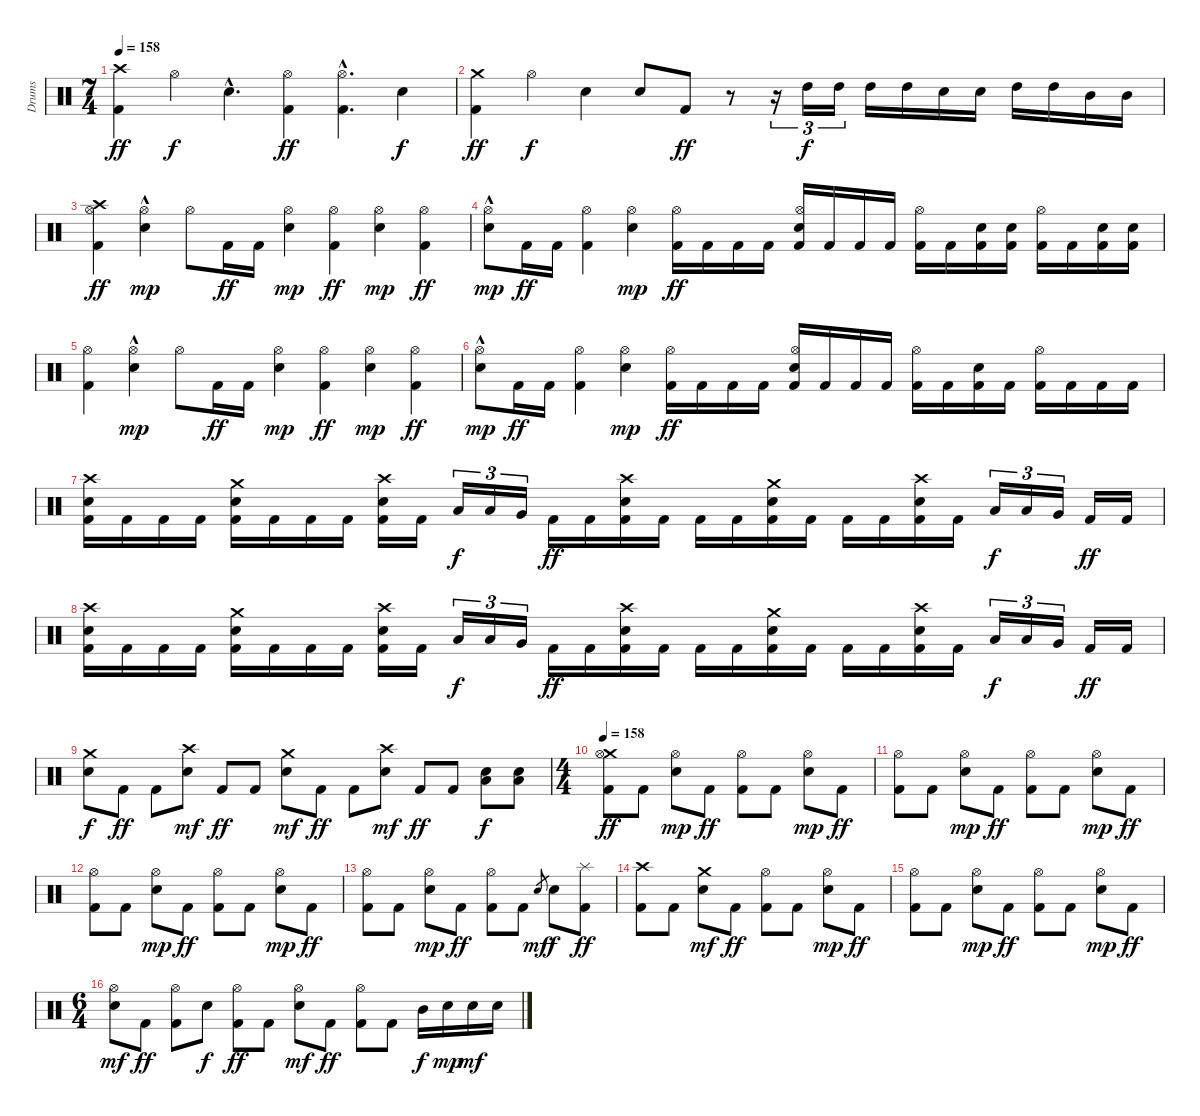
\track ("Drums" "Drums") {instrument percussion}
\staff {score}
\articulation defaults
\ts (7 4)
\tempo 158
\clef neutral
\ks c
("Crash high (hit)" "Kick (hit) 2").4{dy ff} "Hi-Hat (open)".4{dy f} "Electric Snare (hit)"{hac}.4{d} ("Hi-Hat (open)" "Kick (hit) 2").4{dy ff} ("Hi-Hat (open)"{hac} "Kick (hit) 2"{hac}).4{d} "Electric Snare (hit)".4{dy f} |
("Crash medium (hit)" "Kick (hit) 2").4{dy ff} "Hi-Hat (open)".4{dy f} "Electric Snare (hit)".4 "Electric Snare (hit)".8 "Kick (hit) 2".8{dy ff} r.8 r.16{tu (3 2)} "High Tom (hit)".16{tu (3 2) dy f} "High Tom (hit)".16{tu (3 2)} "High Tom (hit)".16 "High Tom (hit)".16 "Electric Snare (hit)".16 "Electric Snare (hit)".16 "High Tom (hit)".16 "High Tom (hit)".16 "Mid Tom (hit)".16 "Mid Tom (hit)".16 |
("Crash high (hit)" "Hi-Hat (open)" "Kick (hit) 2").4{dy ff} ("Hi-Hat (open)" "Electric Snare (hit)"{hac}).4{dy mp} "Hi-Hat (open)".8 "Kick (hit) 2".16{dy ff} "Kick (hit) 2".16 ("Hi-Hat (open)" "Electric Snare (hit)").4{dy mp} ("Hi-Hat (open)" "Kick (hit) 2").4{dy ff} ("Hi-Hat (open)" "Electric Snare (hit)").4{dy mp} ("Hi-Hat (open)" "Kick (hit) 2").4{dy ff} |
("Hi-Hat (open)" "Electric Snare (hit)"{hac}).8{dy mp} "Kick (hit) 2".16{dy ff} "Kick (hit) 2".16 ("Hi-Hat (open)" "Kick (hit) 2").4 ("Hi-Hat (open)" "Electric Snare (hit)").4{dy mp} ("Hi-Hat (open)" "Kick (hit) 2").16{dy ff} "Kick (hit) 2".16 "Kick (hit) 2".16 "Kick (hit) 2".16 ("Hi-Hat (open)" "Electric Snare (hit)" "Kick (hit) 2").16 "Kick (hit) 2".16 "Kick (hit) 2".16 "Kick (hit) 2".16 ("Hi-Hat (open)" "Kick (hit) 2").16 "Kick (hit) 2".16 ("Electric Snare (hit)" "Kick (hit) 2").16 ("Electric Snare (hit)" "Kick (hit) 2").16 ("Hi-Hat (open)" "Kick (hit) 2").16 "Kick (hit) 2".16 ("Electric Snare (hit)" "Kick (hit) 2").16 ("Electric Snare (hit)" "Kick (hit) 2").16 |
("Hi-Hat (open)" "Kick (hit) 2").4 ("Hi-Hat (open)" "Electric Snare (hit)"{hac}).4{dy mp} "Hi-Hat (open)".8 "Kick (hit) 2".16{dy ff} "Kick (hit) 2".16 ("Hi-Hat (open)" "Electric Snare (hit)").4{dy mp} ("Hi-Hat (open)" "Kick (hit) 2").4{dy ff} ("Hi-Hat (open)" "Electric Snare (hit)").4{dy mp} ("Hi-Hat (open)" "Kick (hit) 2").4{dy ff} |
("Hi-Hat (open)" "Electric Snare (hit)"{hac}).8{dy mp} "Kick (hit) 2".16{dy ff} "Kick (hit) 2".16 ("Hi-Hat (open)" "Kick (hit) 2").4 ("Hi-Hat (open)" "Electric Snare (hit)").4{dy mp} ("Hi-Hat (open)" "Kick (hit) 2").16{dy ff} "Kick (hit) 2".16 "Kick (hit) 2".16 "Kick (hit) 2".16 ("Hi-Hat (open)" "Electric Snare (hit)" "Kick (hit) 2").16 "Kick (hit) 2".16 "Kick (hit) 2".16 "Kick (hit) 2".16 ("Hi-Hat (open)" "Kick (hit) 2").16 "Kick (hit) 2".16 ("Electric Snare (hit)" "Kick (hit) 2").16 "Kick (hit) 2".16 ("Hi-Hat (open)" "Kick (hit) 2").16 "Kick (hit) 2".16 "Kick (hit) 2".16 "Kick (hit) 2".16 |
("Crash high (hit)" "Electric Snare (hit)" "Kick (hit) 2").16 "Kick (hit) 2".16 "Kick (hit) 2".16 "Kick (hit) 2".16 ("Crash medium (hit)" "Electric Snare (hit)" "Kick (hit) 2").16 "Kick (hit) 2".16 "Kick (hit) 2".16 "Kick (hit) 2".16 ("Crash high (hit)" "Electric Snare (hit)" "Kick (hit) 2").16 "Kick (hit) 2".16 "Low Tom (hit)".16{tu (3 2) dy f} "Low Tom (hit)".16{tu (3 2)} "Very Low Tom (hit)".16{tu (3 2)} "Kick (hit) 2".16{dy ff} "Kick (hit) 2".16 ("Crash high (hit)" "Electric Snare (hit)" "Kick (hit) 2").16 "Kick (hit) 2".16 "Kick (hit) 2".16 "Kick (hit) 2".16 ("Crash medium (hit)" "Electric Snare (hit)" "Kick (hit) 2").16 "Kick (hit) 2".16 "Kick (hit) 2".16 "Kick (hit) 2".16 ("Crash high (hit)" "Electric Snare (hit)" "Kick (hit) 2").16 "Kick (hit) 2".16 "Low Tom (hit)".16{tu (3 2) dy f} "Low Tom (hit)".16{tu (3 2)} "Very Low Tom (hit)".16{tu (3 2)} "Kick (hit) 2".16{dy ff} "Kick (hit) 2".16 |
("Crash high (hit)" "Electric Snare (hit)" "Kick (hit) 2").16 "Kick (hit) 2".16 "Kick (hit) 2".16 "Kick (hit) 2".16 ("Crash medium (hit)" "Electric Snare (hit)" "Kick (hit) 2").16 "Kick (hit) 2".16 "Kick (hit) 2".16 "Kick (hit) 2".16 ("Crash high (hit)" "Electric Snare (hit)" "Kick (hit) 2").16 "Kick (hit) 2".16 "Low Tom (hit)".16{tu (3 2) dy f} "Low Tom (hit)".16{tu (3 2)} "Very Low Tom (hit)".16{tu (3 2)} "Kick (hit) 2".16{dy ff} "Kick (hit) 2".16 ("Crash high (hit)" "Electric Snare (hit)" "Kick (hit) 2").16 "Kick (hit) 2".16 "Kick (hit) 2".16 "Kick (hit) 2".16 ("Crash medium (hit)" "Electric Snare (hit)" "Kick (hit) 2").16 "Kick (hit) 2".16 "Kick (hit) 2".16 "Kick (hit) 2".16 ("Crash high (hit)" "Electric Snare (hit)" "Kick (hit) 2").16 "Kick (hit) 2".16 "Low Tom (hit)".16{tu (3 2) dy f} "Low Tom (hit)".16{tu (3 2)} "Very Low Tom (hit)".16{tu (3 2)} "Kick (hit) 2".16{dy ff} "Kick (hit) 2".16 |
("Crash medium (hit)" "Electric Snare (hit)").8{dy f} "Kick (hit) 2".8{dy ff} "Kick (hit) 2".8 ("Crash high (hit)" "Electric Snare (hit)").8{dy mf} "Kick (hit) 2".8{dy ff} "Kick (hit) 2".8 ("Crash medium (hit)" "Electric Snare (hit)").8{dy mf} "Kick (hit) 2".8{dy ff} "Kick (hit) 2".8 ("Crash high (hit)" "Electric Snare (hit)").8{dy mf} "Kick (hit) 2".8{dy ff} "Kick (hit) 2".8 ("Electric Snare (hit)" "Low Tom (hit)").8{dy f} ("Electric Snare (hit)" "Low Tom (hit)").8 |
\ts (4 4)
\tempo 158
("Crash medium (hit)" "Hi-Hat (open)" "Kick (hit) 2").8{dy ff} "Kick (hit) 2".8 ("Hi-Hat (open)" "Electric Snare (hit)").8{dy mp} "Kick (hit) 2".8{dy ff} ("Hi-Hat (open)" "Kick (hit) 2").8 "Kick (hit) 2".8 ("Hi-Hat (open)" "Electric Snare (hit)").8{dy mp} "Kick (hit) 2".8{dy ff} |
("Hi-Hat (open)" "Kick (hit) 2").8 "Kick (hit) 2".8 ("Hi-Hat (open)" "Electric Snare (hit)").8{dy mp} "Kick (hit) 2".8{dy ff} ("Hi-Hat (open)" "Kick (hit) 2").8 "Kick (hit) 2".8 ("Hi-Hat (open)" "Electric Snare (hit)").8{dy mp} "Kick (hit) 2".8{dy ff} |
("Hi-Hat (open)" "Kick (hit) 2").8 "Kick (hit) 2".8 ("Hi-Hat (open)" "Electric Snare (hit)").8{dy mp} "Kick (hit) 2".8{dy ff} ("Hi-Hat (open)" "Kick (hit) 2").8 "Kick (hit) 2".8 ("Hi-Hat (open)" "Electric Snare (hit)").8{dy mp} "Kick (hit) 2".8{dy ff} |
("Hi-Hat (open)" "Kick (hit) 2").8 "Kick (hit) 2".8 ("Hi-Hat (open)" "Electric Snare (hit)").8{dy mp} "Kick (hit) 2".8{dy ff} ("Hi-Hat (open)" "Kick (hit) 2").8 "Kick (hit) 2".8 "Electric Snare (hit)".8{gr dy mf} "Electric Snare (hit)".8{dy f} ("Splash (hit)" "Kick (hit) 2").8{dy ff} |
("Crash high (hit)" "Kick (hit) 2").8 "Kick (hit) 2".8 ("Crash medium (hit)" "Electric Snare (hit)").8{dy mf} "Kick (hit) 2".8{dy ff} ("Hi-Hat (open)" "Kick (hit) 2").8 "Kick (hit) 2".8 ("Hi-Hat (open)" "Electric Snare (hit)").8{dy mp} "Kick (hit) 2".8{dy ff} |
("Hi-Hat (open)" "Kick (hit) 2").8 "Kick (hit) 2".8 ("Hi-Hat (open)" "Electric Snare (hit)").8{dy mp} "Kick (hit) 2".8{dy ff} ("Hi-Hat (open)" "Kick (hit) 2").8 "Kick (hit) 2".8 ("Hi-Hat (open)" "Electric Snare (hit)").8{dy mp} "Kick (hit) 2".8{dy ff} |
\ts (6 4)
("Hi-Hat (open)" "Electric Snare (hit)").8{dy mf} "Kick (hit) 2".8{dy ff} ("Hi-Hat (open)" "Kick (hit) 2").8 "Electric Snare (hit)".8{dy f} ("Hi-Hat (open)" "Kick (hit) 2").8{dy ff} "Kick (hit) 2".8 ("Hi-Hat (open)" "Electric Snare (hit)").8{dy mf} "Kick (hit) 2".8{dy ff} ("Hi-Hat (open)" "Kick (hit) 2").8 "Kick (hit) 2".8 "Mid Tom (hit)".16{dy f} "Electric Snare (hit)".16{dy mp} "Electric Snare (hit)".16{dy mf} "Electric Snare (hit)".16
